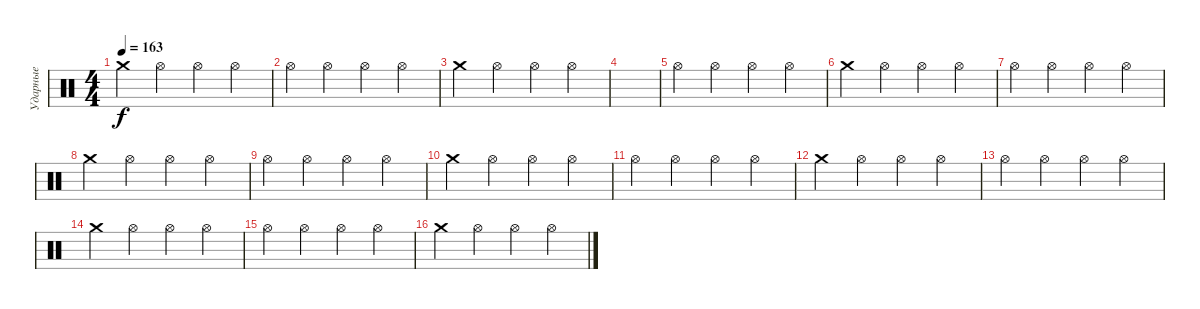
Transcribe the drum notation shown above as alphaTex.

\track ("Ударные" "Ударные") {instrument percussion}
\staff {score}
\articulation defaults
\ts (4 4)
\tempo 163
\clef neutral
\ks c "Crash medium (hit)".4{dy f} "Hi-Hat (open)".4 "Hi-Hat (open)".4 "Hi-Hat (open)".4
|
"Hi-Hat (open)".4 "Hi-Hat (open)".4 "Hi-Hat (open)".4 "Hi-Hat (open)".4 |
"Crash medium (hit)".4 "Hi-Hat (open)".4 "Hi-Hat (open)".4 "Hi-Hat (open)".4 |
|
"Hi-Hat (open)".4 "Hi-Hat (open)".4 "Hi-Hat (open)".4 "Hi-Hat (open)".4 |
"Crash medium (hit)".4 "Hi-Hat (open)".4 "Hi-Hat (open)".4 "Hi-Hat (open)".4 |
"Hi-Hat (open)".4 "Hi-Hat (open)".4 "Hi-Hat (open)".4 "Hi-Hat (open)".4 |
"Crash medium (hit)".4 "Hi-Hat (open)".4 "Hi-Hat (open)".4 "Hi-Hat (open)".4 |
"Hi-Hat (open)".4 "Hi-Hat (open)".4 "Hi-Hat (open)".4 "Hi-Hat (open)".4 |
"Crash medium (hit)".4 "Hi-Hat (open)".4 "Hi-Hat (open)".4 "Hi-Hat (open)".4 |
"Hi-Hat (open)".4 "Hi-Hat (open)".4 "Hi-Hat (open)".4 "Hi-Hat (open)".4 |
"Crash medium (hit)".4 "Hi-Hat (open)".4 "Hi-Hat (open)".4 "Hi-Hat (open)".4 |
"Hi-Hat (open)".4 "Hi-Hat (open)".4 "Hi-Hat (open)".4 "Hi-Hat (open)".4 |
"Crash medium (hit)".4 "Hi-Hat (open)".4 "Hi-Hat (open)".4 "Hi-Hat (open)".4 |
"Hi-Hat (open)".4 "Hi-Hat (open)".4 "Hi-Hat (open)".4 "Hi-Hat (open)".4 |
"Crash medium (hit)".4 "Hi-Hat (open)".4 "Hi-Hat (open)".4 "Hi-Hat (open)".4
